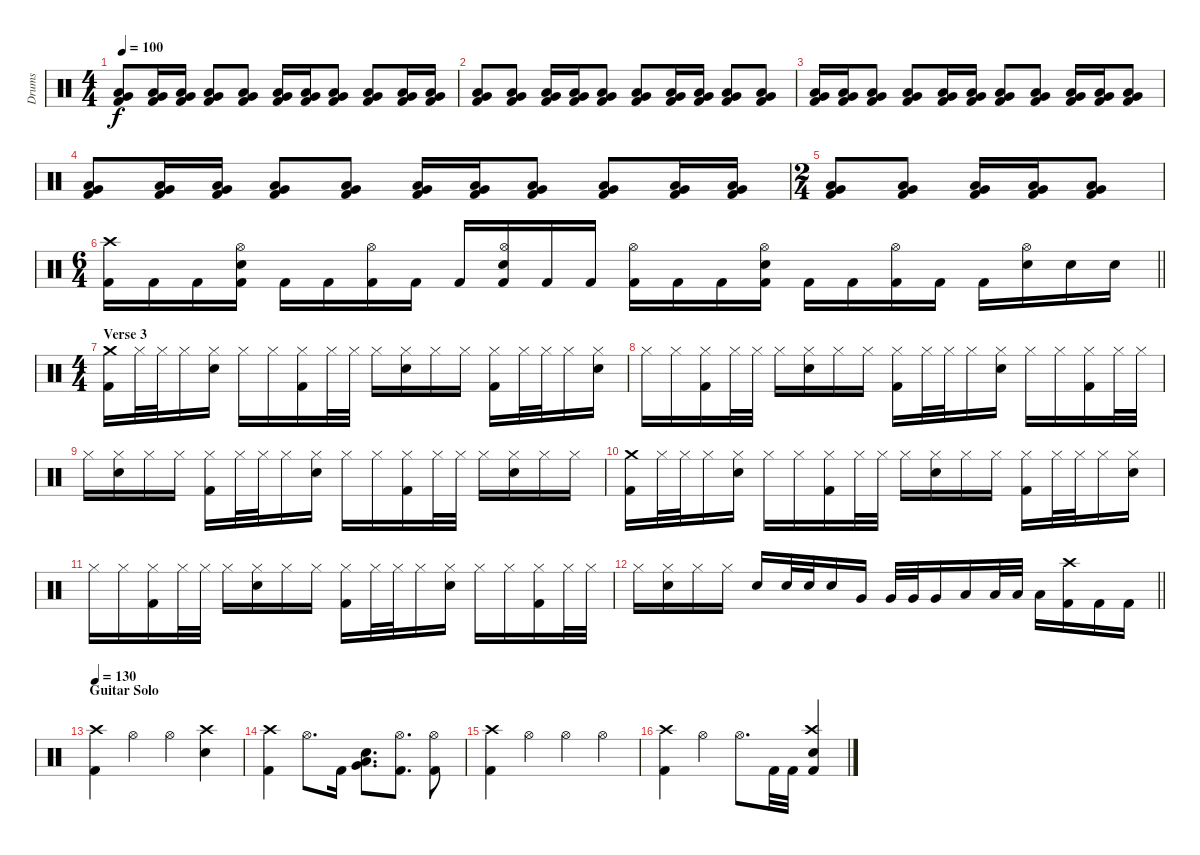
\track ("Drums" "Drums") {instrument percussion}
\staff {score}
\articulation defaults
\ts (4 4)
\tempo 100
\clef neutral
\ks c
("Very Low Tom (hit)" "Low Tom (hit)" "Kick (hit) 2").8{dy f} ("Very Low Tom (hit)" "Low Tom (hit)" "Kick (hit) 2").16 ("Very Low Tom (hit)" "Low Tom (hit)" "Kick (hit) 2").16 ("Very Low Tom (hit)" "Low Tom (hit)" "Kick (hit) 2").8 ("Very Low Tom (hit)" "Low Tom (hit)" "Kick (hit) 2").8 ("Very Low Tom (hit)" "Low Tom (hit)" "Kick (hit) 2").16 ("Very Low Tom (hit)" "Low Tom (hit)" "Kick (hit) 2").16 ("Very Low Tom (hit)" "Low Tom (hit)" "Kick (hit) 2").8 ("Very Low Tom (hit)" "Low Tom (hit)" "Kick (hit) 2").8 ("Very Low Tom (hit)" "Low Tom (hit)" "Kick (hit) 2").16 ("Very Low Tom (hit)" "Low Tom (hit)" "Kick (hit) 2").16 |
("Very Low Tom (hit)" "Low Tom (hit)" "Kick (hit) 2").8 ("Very Low Tom (hit)" "Low Tom (hit)" "Kick (hit) 2").8 ("Very Low Tom (hit)" "Low Tom (hit)" "Kick (hit) 2").16 ("Very Low Tom (hit)" "Low Tom (hit)" "Kick (hit) 2").16 ("Very Low Tom (hit)" "Low Tom (hit)" "Kick (hit) 2").8 ("Very Low Tom (hit)" "Low Tom (hit)" "Kick (hit) 2").8 ("Very Low Tom (hit)" "Low Tom (hit)" "Kick (hit) 2").16 ("Very Low Tom (hit)" "Low Tom (hit)" "Kick (hit) 2").16 ("Very Low Tom (hit)" "Low Tom (hit)" "Kick (hit) 2").8 ("Very Low Tom (hit)" "Low Tom (hit)" "Kick (hit) 2").8 |
("Very Low Tom (hit)" "Low Tom (hit)" "Kick (hit) 2").16 ("Very Low Tom (hit)" "Low Tom (hit)" "Kick (hit) 2").16 ("Very Low Tom (hit)" "Low Tom (hit)" "Kick (hit) 2").8 ("Very Low Tom (hit)" "Low Tom (hit)" "Kick (hit) 2").8 ("Very Low Tom (hit)" "Low Tom (hit)" "Kick (hit) 2").16 ("Very Low Tom (hit)" "Low Tom (hit)" "Kick (hit) 2").16 ("Very Low Tom (hit)" "Low Tom (hit)" "Kick (hit) 2").8 ("Very Low Tom (hit)" "Low Tom (hit)" "Kick (hit) 2").8 ("Very Low Tom (hit)" "Low Tom (hit)" "Kick (hit) 2").16 ("Very Low Tom (hit)" "Low Tom (hit)" "Kick (hit) 2").16 ("Very Low Tom (hit)" "Low Tom (hit)" "Kick (hit) 2").8 |
("Very Low Tom (hit)" "Low Tom (hit)" "Kick (hit) 2").8 ("Very Low Tom (hit)" "Low Tom (hit)" "Kick (hit) 2").16 ("Very Low Tom (hit)" "Low Tom (hit)" "Kick (hit) 2").16 ("Very Low Tom (hit)" "Low Tom (hit)" "Kick (hit) 2").8 ("Very Low Tom (hit)" "Low Tom (hit)" "Kick (hit) 2").8 ("Very Low Tom (hit)" "Low Tom (hit)" "Kick (hit) 2").16 ("Very Low Tom (hit)" "Low Tom (hit)" "Kick (hit) 2").16 ("Very Low Tom (hit)" "Low Tom (hit)" "Kick (hit) 2").8 ("Very Low Tom (hit)" "Low Tom (hit)" "Kick (hit) 2").8 ("Very Low Tom (hit)" "Low Tom (hit)" "Kick (hit) 2").16 ("Very Low Tom (hit)" "Low Tom (hit)" "Kick (hit) 2").16 |
\ts (2 4)
("Very Low Tom (hit)" "Low Tom (hit)" "Kick (hit) 2").8 ("Very Low Tom (hit)" "Low Tom (hit)" "Kick (hit) 2").8 ("Very Low Tom (hit)" "Low Tom (hit)" "Kick (hit) 2").16 ("Very Low Tom (hit)" "Low Tom (hit)" "Kick (hit) 2").16 ("Very Low Tom (hit)" "Low Tom (hit)" "Kick (hit) 2").8 |
\ts (6 4)
\barLineRight lightlight
("Crash high (hit)" "Kick (hit) 2").16 "Kick (hit) 2".16 "Kick (hit) 2".16 ("Hi-Hat (open)" "Electric Snare (hit)" "Kick (hit) 2").16 "Kick (hit) 2".16 "Kick (hit) 2".16 ("Hi-Hat (open)" "Kick (hit) 2").16 "Kick (hit) 2".16 "Kick (hit) 2".16 ("Hi-Hat (open)" "Electric Snare (hit)" "Kick (hit) 2").16 "Kick (hit) 2".16 "Kick (hit) 2".16 ("Hi-Hat (open)" "Kick (hit) 2").16 "Kick (hit) 2".16 "Kick (hit) 2".16 ("Hi-Hat (open)" "Electric Snare (hit)" "Kick (hit) 2").16 "Kick (hit) 2".16 "Kick (hit) 2".16 ("Hi-Hat (open)" "Kick (hit) 2").16 "Kick (hit) 2".16 "Kick (hit) 2".16 ("Hi-Hat (open)" "Electric Snare (hit)").16 "Electric Snare (hit)".16 "Electric Snare (hit)".16 |
\ts (4 4)
\section ("" "Verse 3")
("Crash medium (hit)" "Kick (hit) 2").16 "Hi-Hat (closed)".32 "Hi-Hat (closed)".32 "Hi-Hat (closed)".16 ("Hi-Hat (closed)" "Electric Snare (hit)").16 "Hi-Hat (closed)".16 "Hi-Hat (closed)".16 ("Hi-Hat (closed)" "Kick (hit) 2").16 "Hi-Hat (closed)".32 "Hi-Hat (closed)".32 "Hi-Hat (closed)".16 ("Hi-Hat (closed)" "Electric Snare (hit)").16 "Hi-Hat (closed)".16 "Hi-Hat (closed)".16 ("Hi-Hat (closed)" "Kick (hit) 2").16 "Hi-Hat (closed)".32 "Hi-Hat (closed)".32 "Hi-Hat (closed)".16 ("Hi-Hat (closed)" "Electric Snare (hit)").16 |
"Hi-Hat (closed)".16 "Hi-Hat (closed)".16 ("Hi-Hat (closed)" "Kick (hit) 2").16 "Hi-Hat (closed)".32 "Hi-Hat (closed)".32 "Hi-Hat (closed)".16 ("Hi-Hat (closed)" "Electric Snare (hit)").16 "Hi-Hat (closed)".16 "Hi-Hat (closed)".16 ("Hi-Hat (closed)" "Kick (hit) 2").16 "Hi-Hat (closed)".32 "Hi-Hat (closed)".32 "Hi-Hat (closed)".16 ("Hi-Hat (closed)" "Electric Snare (hit)").16 "Hi-Hat (closed)".16 "Hi-Hat (closed)".16 ("Hi-Hat (closed)" "Kick (hit) 2").16 "Hi-Hat (closed)".32 "Hi-Hat (closed)".32 |
"Hi-Hat (closed)".16 ("Hi-Hat (closed)" "Electric Snare (hit)").16 "Hi-Hat (closed)".16 "Hi-Hat (closed)".16 ("Hi-Hat (closed)" "Kick (hit) 2").16 "Hi-Hat (closed)".32 "Hi-Hat (closed)".32 "Hi-Hat (closed)".16 ("Hi-Hat (closed)" "Electric Snare (hit)").16 "Hi-Hat (closed)".16 "Hi-Hat (closed)".16 ("Hi-Hat (closed)" "Kick (hit) 2").16 "Hi-Hat (closed)".32 "Hi-Hat (closed)".32 "Hi-Hat (closed)".16 ("Hi-Hat (closed)" "Electric Snare (hit)").16 "Hi-Hat (closed)".16 "Hi-Hat (closed)".16 |
("Crash medium (hit)" "Kick (hit) 2").16 "Hi-Hat (closed)".32 "Hi-Hat (closed)".32 "Hi-Hat (closed)".16 ("Hi-Hat (closed)" "Electric Snare (hit)").16 "Hi-Hat (closed)".16 "Hi-Hat (closed)".16 ("Hi-Hat (closed)" "Kick (hit) 2").16 "Hi-Hat (closed)".32 "Hi-Hat (closed)".32 "Hi-Hat (closed)".16 ("Hi-Hat (closed)" "Electric Snare (hit)").16 "Hi-Hat (closed)".16 "Hi-Hat (closed)".16 ("Hi-Hat (closed)" "Kick (hit) 2").16 "Hi-Hat (closed)".32 "Hi-Hat (closed)".32 "Hi-Hat (closed)".16 ("Hi-Hat (closed)" "Electric Snare (hit)").16 |
"Hi-Hat (closed)".16 "Hi-Hat (closed)".16 ("Hi-Hat (closed)" "Kick (hit) 2").16 "Hi-Hat (closed)".32 "Hi-Hat (closed)".32 "Hi-Hat (closed)".16 ("Hi-Hat (closed)" "Electric Snare (hit)").16 "Hi-Hat (closed)".16 "Hi-Hat (closed)".16 ("Hi-Hat (closed)" "Kick (hit) 2").16 "Hi-Hat (closed)".32 "Hi-Hat (closed)".32 "Hi-Hat (closed)".16 ("Hi-Hat (closed)" "Electric Snare (hit)").16 "Hi-Hat (closed)".16 "Hi-Hat (closed)".16 ("Hi-Hat (closed)" "Kick (hit) 2").16 "Hi-Hat (closed)".32 "Hi-Hat (closed)".32 |
\barLineRight lightlight "Hi-Hat (closed)".16
("Hi-Hat (closed)" "Electric Snare (hit)").16 "Hi-Hat (closed)".16 "Hi-Hat (closed)".16 "Electric Snare (hit)".16 "Electric Snare (hit)".32 "Electric Snare (hit)".32 "Electric Snare (hit)".16 "Very Low Tom (hit)".16 "Very Low Tom (hit)".32 "Very Low Tom (hit)".32 "Very Low Tom (hit)".16 "Low Tom (hit)".16 "Low Tom (hit)".32 "Low Tom (hit)".32 "Low Tom (hit)".16 ("Crash high (hit)" "Kick (hit) 2").16 "Kick (hit) 2".16 "Kick (hit) 2".16 |
\section ("" "Guitar Solo")
\tempo 130
("Crash high (hit)" "Kick (hit) 2").4 "Hi-Hat (open)".4 "Hi-Hat (open)".4 ("Crash high (hit)" "Electric Snare (hit)").4 |
("Crash high (hit)" "Kick (hit) 2").4 "Hi-Hat (open)".8{d} "Kick (hit) 2".16 ("Low Tom (hit)" "Very Low Tom (hit)" "Electric Snare (hit)").8{d} ("Hi-Hat (open)" "Kick (hit) 2").8{d} ("Hi-Hat (open)" "Kick (hit) 2").8 |
("Crash high (hit)" "Kick (hit) 2").4 "Hi-Hat (open)".4 "Hi-Hat (open)".4 "Hi-Hat (open)".4 |
("Crash high (hit)" "Kick (hit) 2").4 "Hi-Hat (open)".4 "Hi-Hat (open)".8{d} "Kick (hit) 2".32 "Kick (hit) 2".32 ("Crash high (hit)" "Electric Snare (hit)" "Kick (hit) 2").4
